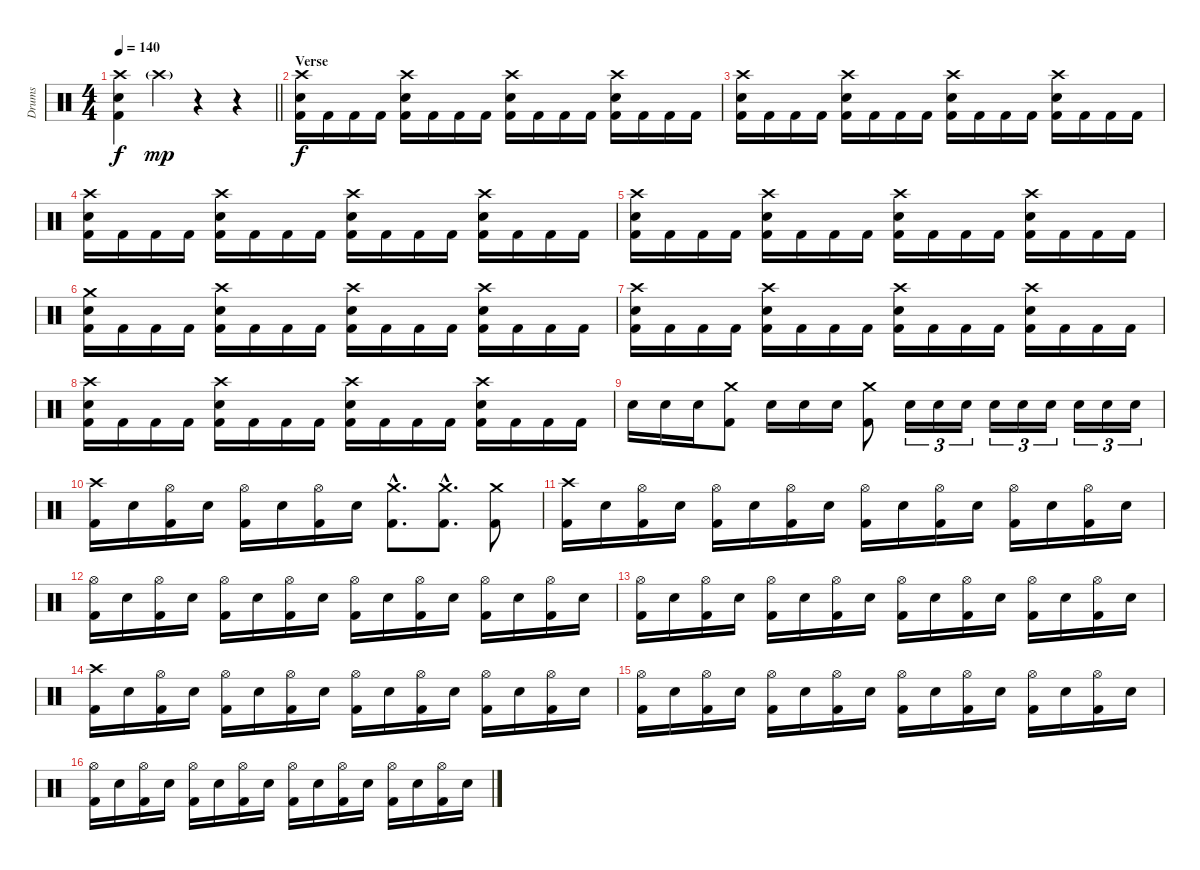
\track ("Drums" "Drums") {instrument percussion}
\staff {score}
\articulation defaults
\ts (4 4)
\tempo 140
\clef neutral
\barLineRight lightlight
\ks c
("Crash high (hit)" "Electric Snare (hit)" "Kick (hit) 2").4{dy f} "Crash high (hit)"{g}.4{dy mp volume 0} r.4 r.4 |
\section ("" "Verse")
("Crash high (hit)" "Electric Snare (hit)" "Kick (hit) 2").16{dy f volume 16} "Kick (hit) 2".16 "Kick (hit) 2".16 "Kick (hit) 2".16 ("Crash high (hit)" "Electric Snare (hit)" "Kick (hit) 2").16 "Kick (hit) 2".16 "Kick (hit) 2".16 "Kick (hit) 2".16 ("Crash high (hit)" "Electric Snare (hit)" "Kick (hit) 2").16 "Kick (hit) 2".16 "Kick (hit) 2".16 "Kick (hit) 2".16 ("Crash high (hit)" "Electric Snare (hit)" "Kick (hit) 2").16 "Kick (hit) 2".16 "Kick (hit) 2".16 "Kick (hit) 2".16 |
("Crash high (hit)" "Electric Snare (hit)" "Kick (hit) 2").16 "Kick (hit) 2".16 "Kick (hit) 2".16 "Kick (hit) 2".16 ("Crash high (hit)" "Electric Snare (hit)" "Kick (hit) 2").16 "Kick (hit) 2".16 "Kick (hit) 2".16 "Kick (hit) 2".16 ("Crash high (hit)" "Electric Snare (hit)" "Kick (hit) 2").16 "Kick (hit) 2".16 "Kick (hit) 2".16 "Kick (hit) 2".16 ("Crash high (hit)" "Electric Snare (hit)" "Kick (hit) 2").16 "Kick (hit) 2".16 "Kick (hit) 2".16 "Kick (hit) 2".16 |
("Crash high (hit)" "Electric Snare (hit)" "Kick (hit) 2").16 "Kick (hit) 2".16 "Kick (hit) 2".16 "Kick (hit) 2".16 ("Crash high (hit)" "Electric Snare (hit)" "Kick (hit) 2").16 "Kick (hit) 2".16 "Kick (hit) 2".16 "Kick (hit) 2".16 ("Crash high (hit)" "Electric Snare (hit)" "Kick (hit) 2").16 "Kick (hit) 2".16 "Kick (hit) 2".16 "Kick (hit) 2".16 ("Crash high (hit)" "Electric Snare (hit)" "Kick (hit) 2").16 "Kick (hit) 2".16 "Kick (hit) 2".16 "Kick (hit) 2".16 |
("Crash high (hit)" "Electric Snare (hit)" "Kick (hit) 2").16 "Kick (hit) 2".16 "Kick (hit) 2".16 "Kick (hit) 2".16 ("Crash high (hit)" "Electric Snare (hit)" "Kick (hit) 2").16 "Kick (hit) 2".16 "Kick (hit) 2".16 "Kick (hit) 2".16 ("Crash high (hit)" "Electric Snare (hit)" "Kick (hit) 2").16 "Kick (hit) 2".16 "Kick (hit) 2".16 "Kick (hit) 2".16 ("Crash high (hit)" "Electric Snare (hit)" "Kick (hit) 2").16 "Kick (hit) 2".16 "Kick (hit) 2".16 "Kick (hit) 2".16 |
("Crash medium (hit)" "Electric Snare (hit)" "Kick (hit) 2").16 "Kick (hit) 2".16 "Kick (hit) 2".16 "Kick (hit) 2".16 ("Crash high (hit)" "Electric Snare (hit)" "Kick (hit) 2").16 "Kick (hit) 2".16 "Kick (hit) 2".16 "Kick (hit) 2".16 ("Crash high (hit)" "Electric Snare (hit)" "Kick (hit) 2").16 "Kick (hit) 2".16 "Kick (hit) 2".16 "Kick (hit) 2".16 ("Crash high (hit)" "Electric Snare (hit)" "Kick (hit) 2").16 "Kick (hit) 2".16 "Kick (hit) 2".16 "Kick (hit) 2".16 |
("Crash high (hit)" "Electric Snare (hit)" "Kick (hit) 2").16 "Kick (hit) 2".16 "Kick (hit) 2".16 "Kick (hit) 2".16 ("Crash high (hit)" "Electric Snare (hit)" "Kick (hit) 2").16 "Kick (hit) 2".16 "Kick (hit) 2".16 "Kick (hit) 2".16 ("Crash high (hit)" "Electric Snare (hit)" "Kick (hit) 2").16 "Kick (hit) 2".16 "Kick (hit) 2".16 "Kick (hit) 2".16 ("Crash high (hit)" "Electric Snare (hit)" "Kick (hit) 2").16 "Kick (hit) 2".16 "Kick (hit) 2".16 "Kick (hit) 2".16 |
("Crash high (hit)" "Electric Snare (hit)" "Kick (hit) 2").16 "Kick (hit) 2".16 "Kick (hit) 2".16 "Kick (hit) 2".16 ("Crash high (hit)" "Electric Snare (hit)" "Kick (hit) 2").16 "Kick (hit) 2".16 "Kick (hit) 2".16 "Kick (hit) 2".16 ("Crash high (hit)" "Electric Snare (hit)" "Kick (hit) 2").16 "Kick (hit) 2".16 "Kick (hit) 2".16 "Kick (hit) 2".16 ("Crash high (hit)" "Electric Snare (hit)" "Kick (hit) 2").16 "Kick (hit) 2".16 "Kick (hit) 2".16 "Kick (hit) 2".16 |
"Electric Snare (hit)".16 "Electric Snare (hit)".16 "Electric Snare (hit)".16 ("Crash medium (hit)" "Kick (hit) 2").8 "Electric Snare (hit)".16 "Electric Snare (hit)".16 "Electric Snare (hit)".16 ("Crash medium (hit)" "Kick (hit) 2").8 "Electric Snare (hit)".16{tu (3 2)} "Electric Snare (hit)".16{tu (3 2)} "Electric Snare (hit)".16{tu (3 2)} "Electric Snare (hit)".16{tu (3 2)} "Electric Snare (hit)".16{tu (3 2)} "Electric Snare (hit)".16{tu (3 2)} "Electric Snare (hit)".16{tu (3 2)} "Electric Snare (hit)".16{tu (3 2)} "Electric Snare (hit)".16{tu (3 2)} |
("Crash high (hit)" "Kick (hit) 2").16 "Electric Snare (hit)".16 ("Hi-Hat (open)" "Kick (hit) 2").16 "Electric Snare (hit)".16 ("Hi-Hat (open)" "Kick (hit) 2").16 "Electric Snare (hit)".16 ("Hi-Hat (open)" "Kick (hit) 2").16 "Electric Snare (hit)".16 ("Crash medium (hit)"{hac} "Kick (hit) 2"{hac}).8{d} ("Crash medium (hit)"{hac} "Kick (hit) 2"{hac}).8{d} ("Crash medium (hit)" "Kick (hit) 2").8 |
("Crash high (hit)" "Kick (hit) 2").16 "Electric Snare (hit)".16 ("Hi-Hat (open)" "Kick (hit) 2").16 "Electric Snare (hit)".16 ("Hi-Hat (open)" "Kick (hit) 2").16 "Electric Snare (hit)".16 ("Hi-Hat (open)" "Kick (hit) 2").16 "Electric Snare (hit)".16 ("Hi-Hat (open)" "Kick (hit) 2").16 "Electric Snare (hit)".16 ("Hi-Hat (open)" "Kick (hit) 2").16 "Electric Snare (hit)".16 ("Hi-Hat (open)" "Kick (hit) 2").16 "Electric Snare (hit)".16 ("Hi-Hat (open)" "Kick (hit) 2").16 "Electric Snare (hit)".16 |
("Hi-Hat (open)" "Kick (hit) 2").16 "Electric Snare (hit)".16 ("Hi-Hat (open)" "Kick (hit) 2").16 "Electric Snare (hit)".16 ("Hi-Hat (open)" "Kick (hit) 2").16 "Electric Snare (hit)".16 ("Hi-Hat (open)" "Kick (hit) 2").16 "Electric Snare (hit)".16 ("Hi-Hat (open)" "Kick (hit) 2").16 "Electric Snare (hit)".16 ("Hi-Hat (open)" "Kick (hit) 2").16 "Electric Snare (hit)".16 ("Hi-Hat (open)" "Kick (hit) 2").16 "Electric Snare (hit)".16 ("Hi-Hat (open)" "Kick (hit) 2").16 "Electric Snare (hit)".16 |
("Hi-Hat (open)" "Kick (hit) 2").16 "Electric Snare (hit)".16 ("Hi-Hat (open)" "Kick (hit) 2").16 "Electric Snare (hit)".16 ("Hi-Hat (open)" "Kick (hit) 2").16 "Electric Snare (hit)".16 ("Hi-Hat (open)" "Kick (hit) 2").16 "Electric Snare (hit)".16 ("Hi-Hat (open)" "Kick (hit) 2").16 "Electric Snare (hit)".16 ("Hi-Hat (open)" "Kick (hit) 2").16 "Electric Snare (hit)".16 ("Hi-Hat (open)" "Kick (hit) 2").16 "Electric Snare (hit)".16 ("Hi-Hat (open)" "Kick (hit) 2").16 "Electric Snare (hit)".16 |
("Crash high (hit)" "Kick (hit) 2").16 "Electric Snare (hit)".16 ("Hi-Hat (open)" "Kick (hit) 2").16 "Electric Snare (hit)".16 ("Hi-Hat (open)" "Kick (hit) 2").16 "Electric Snare (hit)".16 ("Hi-Hat (open)" "Kick (hit) 2").16 "Electric Snare (hit)".16 ("Hi-Hat (open)" "Kick (hit) 2").16 "Electric Snare (hit)".16 ("Hi-Hat (open)" "Kick (hit) 2").16 "Electric Snare (hit)".16 ("Hi-Hat (open)" "Kick (hit) 2").16 "Electric Snare (hit)".16 ("Hi-Hat (open)" "Kick (hit) 2").16 "Electric Snare (hit)".16 |
("Hi-Hat (open)" "Kick (hit) 2").16 "Electric Snare (hit)".16 ("Hi-Hat (open)" "Kick (hit) 2").16 "Electric Snare (hit)".16 ("Hi-Hat (open)" "Kick (hit) 2").16 "Electric Snare (hit)".16 ("Hi-Hat (open)" "Kick (hit) 2").16 "Electric Snare (hit)".16 ("Hi-Hat (open)" "Kick (hit) 2").16 "Electric Snare (hit)".16 ("Hi-Hat (open)" "Kick (hit) 2").16 "Electric Snare (hit)".16 ("Hi-Hat (open)" "Kick (hit) 2").16 "Electric Snare (hit)".16 ("Hi-Hat (open)" "Kick (hit) 2").16 "Electric Snare (hit)".16 |
("Hi-Hat (open)" "Kick (hit) 2").16 "Electric Snare (hit)".16 ("Hi-Hat (open)" "Kick (hit) 2").16 "Electric Snare (hit)".16 ("Hi-Hat (open)" "Kick (hit) 2").16 "Electric Snare (hit)".16 ("Hi-Hat (open)" "Kick (hit) 2").16 "Electric Snare (hit)".16 ("Hi-Hat (open)" "Kick (hit) 2").16 "Electric Snare (hit)".16 ("Hi-Hat (open)" "Kick (hit) 2").16 "Electric Snare (hit)".16 ("Hi-Hat (open)" "Kick (hit) 2").16 "Electric Snare (hit)".16 ("Hi-Hat (open)" "Kick (hit) 2").16 "Electric Snare (hit)".16
